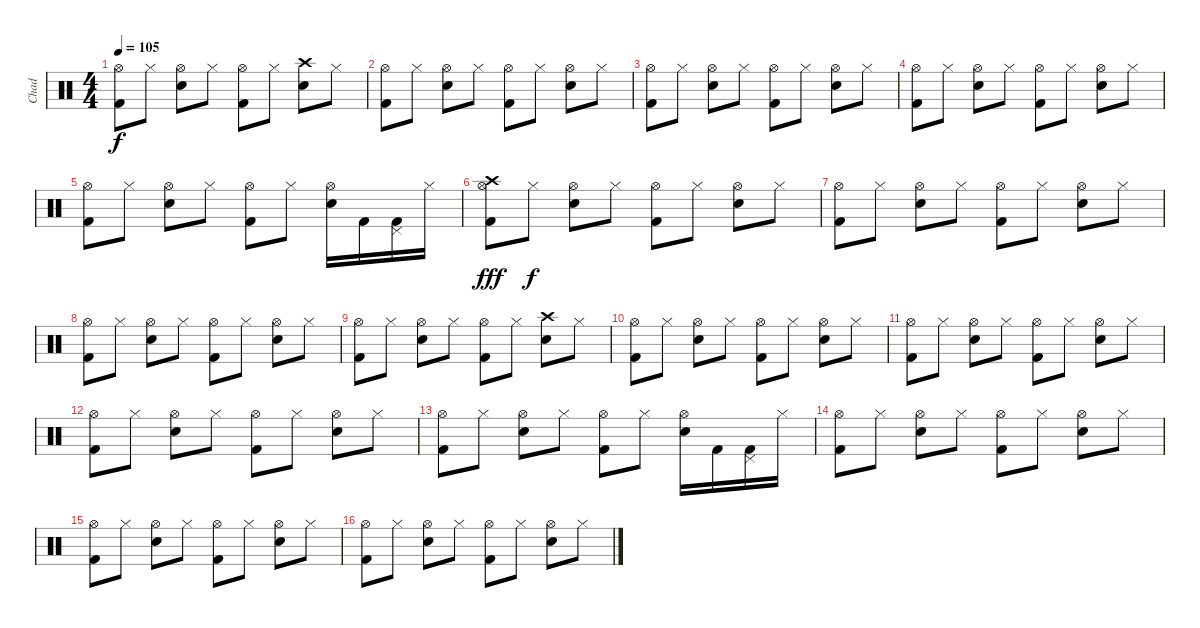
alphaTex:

\track ("Chad" "Chad") {instrument percussion}
\staff {score}
\articulation defaults
\ts (4 4)
\tempo 105
\clef neutral
\ks c
("Hi-Hat (open)" "Kick (hit) 2").8{dy f} "Hi-Hat (closed)".8 ("Hi-Hat (open)" "Electric Snare (hit)").8 "Hi-Hat (closed)".8 ("Hi-Hat (open)" "Kick (hit) 2").8 "Hi-Hat (closed)".8 ("Crash high (hit)" "Electric Snare (hit)").8 "Hi-Hat (closed)".8 |
("Hi-Hat (open)" "Kick (hit) 2").8 "Hi-Hat (closed)".8 ("Hi-Hat (open)" "Electric Snare (hit)").8 "Hi-Hat (closed)".8 ("Hi-Hat (open)" "Kick (hit) 2").8 "Hi-Hat (closed)".8 ("Hi-Hat (open)" "Electric Snare (hit)").8 "Hi-Hat (closed)".8 |
("Hi-Hat (open)" "Kick (hit) 2").8 "Hi-Hat (closed)".8 ("Hi-Hat (open)" "Electric Snare (hit)").8 "Hi-Hat (closed)".8 ("Hi-Hat (open)" "Kick (hit) 2").8 "Hi-Hat (closed)".8 ("Hi-Hat (open)" "Electric Snare (hit)").8 "Hi-Hat (closed)".8 |
("Hi-Hat (open)" "Kick (hit) 2").8 "Hi-Hat (closed)".8 ("Hi-Hat (open)" "Electric Snare (hit)").8 "Hi-Hat (closed)".8 ("Hi-Hat (open)" "Kick (hit) 2").8 "Hi-Hat (closed)".8 ("Hi-Hat (open)" "Electric Snare (hit)").8 "Hi-Hat (closed)".8 |
("Hi-Hat (open)" "Kick (hit) 2").8 "Hi-Hat (closed)".8 ("Hi-Hat (open)" "Electric Snare (hit)").8 "Hi-Hat (closed)".8 ("Hi-Hat (open)" "Kick (hit) 2").8 "Hi-Hat (closed)".8 ("Hi-Hat (open)" "Electric Snare (hit)").16 "Kick (hit) 2".16 ("Pedal Hi-Hat (hit)" "Kick (hit) 2").16 "Hi-Hat (closed)".16 |
("Crash high (hit)" "Hi-Hat (open)" "Kick (hit) 2").8{dy fff} "Hi-Hat (closed)".8{dy f} ("Hi-Hat (open)" "Electric Snare (hit)").8 "Hi-Hat (closed)".8 ("Hi-Hat (open)" "Kick (hit) 2").8 "Hi-Hat (closed)".8 ("Hi-Hat (open)" "Electric Snare (hit)").8 "Hi-Hat (closed)".8 |
("Hi-Hat (open)" "Kick (hit) 2").8 "Hi-Hat (closed)".8 ("Hi-Hat (open)" "Electric Snare (hit)").8 "Hi-Hat (closed)".8 ("Hi-Hat (open)" "Kick (hit) 2").8 "Hi-Hat (closed)".8 ("Hi-Hat (open)" "Electric Snare (hit)").8 "Hi-Hat (closed)".8 |
("Hi-Hat (open)" "Kick (hit) 2").8 "Hi-Hat (closed)".8 ("Hi-Hat (open)" "Electric Snare (hit)").8 "Hi-Hat (closed)".8 ("Hi-Hat (open)" "Kick (hit) 2").8 "Hi-Hat (closed)".8 ("Hi-Hat (open)" "Electric Snare (hit)").8 "Hi-Hat (closed)".8 |
("Hi-Hat (open)" "Kick (hit) 2").8 "Hi-Hat (closed)".8 ("Hi-Hat (open)" "Electric Snare (hit)").8 "Hi-Hat (closed)".8 ("Hi-Hat (open)" "Kick (hit) 2").8 "Hi-Hat (closed)".8 ("Crash high (hit)" "Electric Snare (hit)").8 "Hi-Hat (closed)".8 |
("Hi-Hat (open)" "Kick (hit) 2").8 "Hi-Hat (closed)".8 ("Hi-Hat (open)" "Electric Snare (hit)").8 "Hi-Hat (closed)".8 ("Hi-Hat (open)" "Kick (hit) 2").8 "Hi-Hat (closed)".8 ("Hi-Hat (open)" "Electric Snare (hit)").8 "Hi-Hat (closed)".8 |
("Hi-Hat (open)" "Kick (hit) 2").8 "Hi-Hat (closed)".8 ("Hi-Hat (open)" "Electric Snare (hit)").8 "Hi-Hat (closed)".8 ("Hi-Hat (open)" "Kick (hit) 2").8 "Hi-Hat (closed)".8 ("Hi-Hat (open)" "Electric Snare (hit)").8 "Hi-Hat (closed)".8 |
("Hi-Hat (open)" "Kick (hit) 2").8 "Hi-Hat (closed)".8 ("Hi-Hat (open)" "Electric Snare (hit)").8 "Hi-Hat (closed)".8 ("Hi-Hat (open)" "Kick (hit) 2").8 "Hi-Hat (closed)".8 ("Hi-Hat (open)" "Electric Snare (hit)").8 "Hi-Hat (closed)".8 |
("Hi-Hat (open)" "Kick (hit) 2").8 "Hi-Hat (closed)".8 ("Hi-Hat (open)" "Electric Snare (hit)").8 "Hi-Hat (closed)".8 ("Hi-Hat (open)" "Kick (hit) 2").8 "Hi-Hat (closed)".8 ("Hi-Hat (open)" "Electric Snare (hit)").16 "Kick (hit) 2".16 ("Pedal Hi-Hat (hit)" "Kick (hit) 2").16 "Hi-Hat (closed)".16 |
("Hi-Hat (open)" "Kick (hit) 2").8 "Hi-Hat (closed)".8 ("Hi-Hat (open)" "Electric Snare (hit)").8 "Hi-Hat (closed)".8 ("Hi-Hat (open)" "Kick (hit) 2").8 "Hi-Hat (closed)".8 ("Hi-Hat (open)" "Electric Snare (hit)").8 "Hi-Hat (closed)".8 |
("Hi-Hat (open)" "Kick (hit) 2").8 "Hi-Hat (closed)".8 ("Hi-Hat (open)" "Electric Snare (hit)").8 "Hi-Hat (closed)".8 ("Hi-Hat (open)" "Kick (hit) 2").8 "Hi-Hat (closed)".8 ("Hi-Hat (open)" "Electric Snare (hit)").8 "Hi-Hat (closed)".8 |
("Hi-Hat (open)" "Kick (hit) 2").8 "Hi-Hat (closed)".8 ("Hi-Hat (open)" "Electric Snare (hit)").8 "Hi-Hat (closed)".8 ("Hi-Hat (open)" "Kick (hit) 2").8 "Hi-Hat (closed)".8 ("Hi-Hat (open)" "Electric Snare (hit)").8 "Hi-Hat (closed)".8
